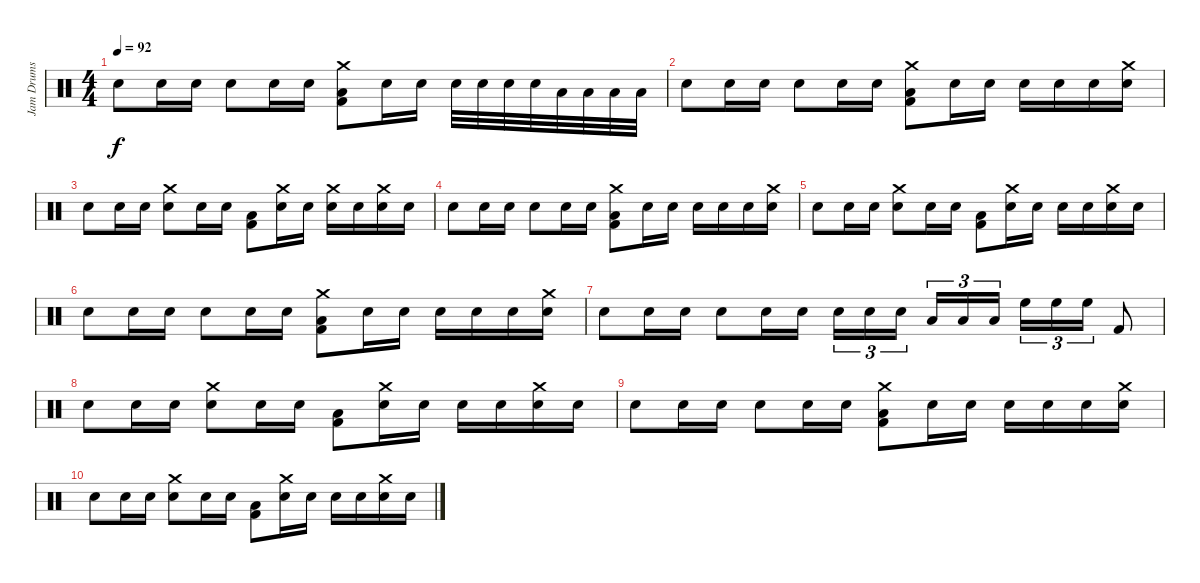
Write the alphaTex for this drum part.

\track ("Jam Drums" "Jam Drums") {instrument percussion}
\staff {score}
\articulation defaults
\ts (4 4)
\tempo 92
\clef neutral
\ks c "Snare (hit) 2".8{dy f} "Snare (hit) 2".16 "Snare (hit) 2".16 "Snare (hit) 2".8 "Snare (hit) 2".16 "Snare (hit) 2".16
("Crash medium (hit)" "Low Tom (hit)" "Kick (hit) 2").8 "Snare (hit) 2".16 "Snare (hit) 2".16 "Snare (hit) 2".32 "Snare (hit) 2".32 "Snare (hit) 2".32 "Snare (hit) 2".32 "Low Tom (hit)".32 "Low Tom (hit)".32 "Low Tom (hit)".32 "Low Tom (hit)".32 |
"Snare (hit) 2".8 "Snare (hit) 2".16 "Snare (hit) 2".16 "Snare (hit) 2".8 "Snare (hit) 2".16 "Snare (hit) 2".16 ("Crash medium (hit)" "Low Tom (hit)" "Kick (hit) 2").8 "Snare (hit) 2".16 "Snare (hit) 2".16 "Snare (hit) 2".16 "Snare (hit) 2".16 "Snare (hit) 2".16 ("Crash medium (hit)" "Snare (hit) 2").16 |
"Snare (hit) 2".8 "Snare (hit) 2".16 "Snare (hit) 2".16 ("Crash medium (hit)" "Snare (hit) 2").8 "Snare (hit) 2".16 "Snare (hit) 2".16 ("Low Tom (hit)" "Kick (hit) 2").8 ("Crash medium (hit)" "Snare (hit) 2").16 "Snare (hit) 2".16 ("Crash medium (hit)" "Snare (hit) 2").16 "Snare (hit) 2".16 ("Crash medium (hit)" "Snare (hit) 2").16 "Snare (hit) 2".16 |
"Snare (hit) 2".8 "Snare (hit) 2".16 "Snare (hit) 2".16 "Snare (hit) 2".8 "Snare (hit) 2".16 "Snare (hit) 2".16 ("Crash medium (hit)" "Low Tom (hit)" "Kick (hit) 2").8 "Snare (hit) 2".16 "Snare (hit) 2".16 "Snare (hit) 2".16 "Snare (hit) 2".16 "Snare (hit) 2".16 ("Crash medium (hit)" "Snare (hit) 2").16 |
"Snare (hit) 2".8 "Snare (hit) 2".16 "Snare (hit) 2".16 ("Crash medium (hit)" "Snare (hit) 2").8 "Snare (hit) 2".16 "Snare (hit) 2".16 ("Low Tom (hit)" "Kick (hit) 2").8 ("Crash medium (hit)" "Snare (hit) 2").16 "Snare (hit) 2".16 "Snare (hit) 2".16 "Snare (hit) 2".16 ("Crash medium (hit)" "Snare (hit) 2").16 "Snare (hit) 2".16 |
"Snare (hit) 2".8 "Snare (hit) 2".16 "Snare (hit) 2".16 "Snare (hit) 2".8 "Snare (hit) 2".16 "Snare (hit) 2".16 ("Crash medium (hit)" "Low Tom (hit)" "Kick (hit) 2").8 "Snare (hit) 2".16 "Snare (hit) 2".16 "Snare (hit) 2".16 "Snare (hit) 2".16 "Snare (hit) 2".16 ("Crash medium (hit)" "Snare (hit) 2").16 |
"Snare (hit) 2".8 "Snare (hit) 2".16 "Snare (hit) 2".16 "Snare (hit) 2".8 "Snare (hit) 2".16 "Snare (hit) 2".16 "Snare (hit) 2".16{tu (3 2)} "Snare (hit) 2".16{tu (3 2)} "Snare (hit) 2".16{tu (3 2) beam splitsecondary} "Low Tom (hit)".16{tu (3 2)} "Low Tom (hit)".16{tu (3 2)} "Low Tom (hit)".16{tu (3 2)} "High Floor Tom (hit)".16{tu (3 2)} "High Floor Tom (hit)".16{tu (3 2)} "High Floor Tom (hit)".16{tu (3 2)} "Kick (hit) 2".8 |
"Snare (hit) 2".8 "Snare (hit) 2".16 "Snare (hit) 2".16 ("Crash medium (hit)" "Snare (hit) 2").8 "Snare (hit) 2".16 "Snare (hit) 2".16 ("Low Tom (hit)" "Kick (hit) 2").8 ("Crash medium (hit)" "Snare (hit) 2").16 "Snare (hit) 2".16 "Snare (hit) 2".16 "Snare (hit) 2".16 ("Crash medium (hit)" "Snare (hit) 2").16 "Snare (hit) 2".16 |
"Snare (hit) 2".8 "Snare (hit) 2".16 "Snare (hit) 2".16 "Snare (hit) 2".8 "Snare (hit) 2".16 "Snare (hit) 2".16 ("Crash medium (hit)" "Low Tom (hit)" "Kick (hit) 2").8 "Snare (hit) 2".16 "Snare (hit) 2".16 "Snare (hit) 2".16 "Snare (hit) 2".16 "Snare (hit) 2".16 ("Crash medium (hit)" "Snare (hit) 2").16 |
"Snare (hit) 2".8 "Snare (hit) 2".16 "Snare (hit) 2".16 ("Crash medium (hit)" "Snare (hit) 2").8 "Snare (hit) 2".16 "Snare (hit) 2".16 ("Low Tom (hit)" "Kick (hit) 2").8 ("Crash medium (hit)" "Snare (hit) 2").16 "Snare (hit) 2".16 "Snare (hit) 2".16 "Snare (hit) 2".16 ("Crash medium (hit)" "Snare (hit) 2").16 "Snare (hit) 2".16
